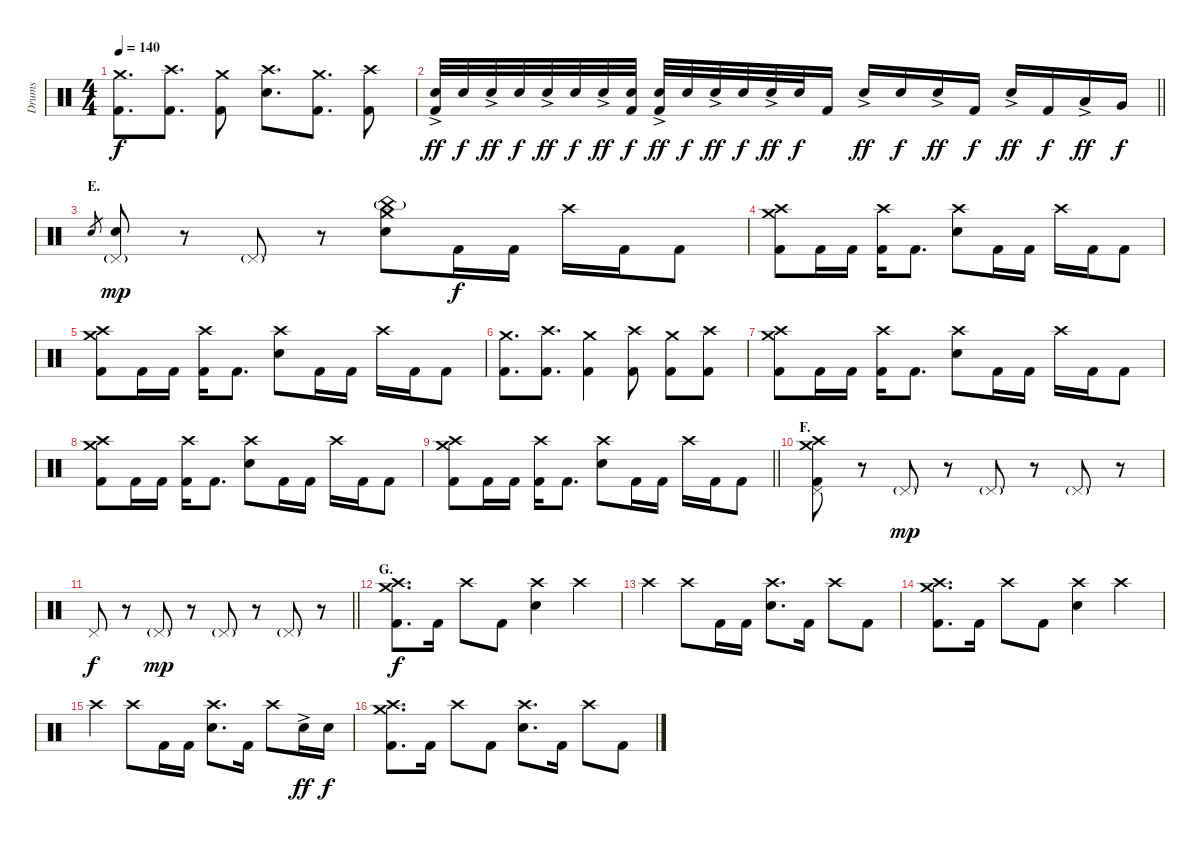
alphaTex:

\track ("Drums" "Drums") {instrument percussion}
\staff {score}
\articulation defaults
\ts (4 4)
\tempo 140
\clef neutral
\ks c
("Crash medium (hit)" "Kick (hit) 2").8{d dy f} ("Crash high (hit)" "Kick (hit) 2").8{d} ("Crash medium (hit)" "Kick (hit) 2").8 ("Crash high (hit)" "Electric Snare (hit)").8{d} ("Crash medium (hit)" "Kick (hit) 2").8{d} ("Crash high (hit)" "Kick (hit) 2").8 |
\barLineRight lightlight
("Electric Snare (hit)"{ac} "Kick (hit) 2").32{dy ff} "Electric Snare (hit)".32{dy f} "Electric Snare (hit)"{ac}.32{dy ff} "Electric Snare (hit)".32{dy f} "Electric Snare (hit)"{ac}.32{dy ff} "Electric Snare (hit)".32{dy f} "Electric Snare (hit)"{ac}.32{dy ff} ("Electric Snare (hit)" "Kick (hit) 2").32{dy f} ("Electric Snare (hit)"{ac} "Kick (hit) 2").32{dy ff} "Electric Snare (hit)".32{dy f} "Electric Snare (hit)"{ac}.32{dy ff} "Electric Snare (hit)".32{dy f} "Electric Snare (hit)"{ac}.32{dy ff} "Electric Snare (hit)".32{dy f} "Kick (hit) 2".16 "Electric Snare (hit)"{ac}.16{dy ff} "Electric Snare (hit)".16{dy f} "Electric Snare (hit)"{ac}.16{dy ff} "Kick (hit) 2".16{dy f} "Electric Snare (hit)"{ac}.16{dy ff} "Kick (hit) 2".16{dy f} "Low Tom (hit)"{ac}.16{dy ff} "Very Low Tom (hit)".16{dy f} |
\section ("" "E.")
"Electric Snare (hit)".8{gr} ("Pedal Hi-Hat (hit)"{g} "Electric Snare (hit)").8{dy mp} r.8 "Pedal Hi-Hat (hit)"{g}.8 r.8 ("Crash medium (hit)" "China (hit)"{g} "Electric Snare (hit)").8 "Kick (hit) 2".16{dy f} "Kick (hit) 2".16 "Crash high (hit)".16 "Kick (hit) 2".16 "Kick (hit) 2".8 |
("Crash medium (hit)" "Crash high (hit)" "Kick (hit) 2").8 "Kick (hit) 2".16 "Kick (hit) 2".16 ("Crash high (hit)" "Kick (hit) 2").16 "Kick (hit) 2".8{d} ("Crash high (hit)" "Electric Snare (hit)").8 "Kick (hit) 2".16 "Kick (hit) 2".16 "Crash high (hit)".16 "Kick (hit) 2".16 "Kick (hit) 2".8 |
("Crash medium (hit)" "Crash high (hit)" "Kick (hit) 2").8 "Kick (hit) 2".16 "Kick (hit) 2".16 ("Crash high (hit)" "Kick (hit) 2").16 "Kick (hit) 2".8{d} ("Crash high (hit)" "Electric Snare (hit)").8 "Kick (hit) 2".16 "Kick (hit) 2".16 "Crash high (hit)".16 "Kick (hit) 2".16 "Kick (hit) 2".8 |
("Crash medium (hit)" "Kick (hit) 2").8{d} ("Crash high (hit)" "Kick (hit) 2").8{d} ("Crash medium (hit)" "Kick (hit) 2").4 ("Crash high (hit)" "Kick (hit) 2").8 ("Crash medium (hit)" "Kick (hit) 2").8 ("Crash high (hit)" "Kick (hit) 2").8 |
("Crash medium (hit)" "Crash high (hit)" "Kick (hit) 2").8 "Kick (hit) 2".16 "Kick (hit) 2".16 ("Crash high (hit)" "Kick (hit) 2").16 "Kick (hit) 2".8{d} ("Crash high (hit)" "Electric Snare (hit)").8 "Kick (hit) 2".16 "Kick (hit) 2".16 "Crash high (hit)".16 "Kick (hit) 2".16 "Kick (hit) 2".8 |
("Crash medium (hit)" "Crash high (hit)" "Kick (hit) 2").8 "Kick (hit) 2".16 "Kick (hit) 2".16 ("Crash high (hit)" "Kick (hit) 2").16 "Kick (hit) 2".8{d} ("Crash high (hit)" "Electric Snare (hit)").8 "Kick (hit) 2".16 "Kick (hit) 2".16 "Crash high (hit)".16 "Kick (hit) 2".16 "Kick (hit) 2".8 |
\barLineRight lightlight
("Crash medium (hit)" "Crash high (hit)" "Kick (hit) 2").8 "Kick (hit) 2".16 "Kick (hit) 2".16 ("Crash high (hit)" "Kick (hit) 2").16 "Kick (hit) 2".8{d} ("Crash high (hit)" "Electric Snare (hit)").8 "Kick (hit) 2".16 "Kick (hit) 2".16 "Crash high (hit)".16 "Kick (hit) 2".16 "Kick (hit) 2".8 |
\section ("" "F.")
("Crash medium (hit)" "Crash high (hit)" "Pedal Hi-Hat (hit)" "Kick (hit) 2").8 r.8 "Pedal Hi-Hat (hit)"{g}.8{dy mp} r.8 "Pedal Hi-Hat (hit)"{g}.8 r.8 "Pedal Hi-Hat (hit)"{g}.8 r.8 |
\barLineRight lightlight "Pedal Hi-Hat (hit)".8{dy f}
r.8 "Pedal Hi-Hat (hit)"{g}.8{dy mp} r.8 "Pedal Hi-Hat (hit)"{g}.8 r.8 "Pedal Hi-Hat (hit)"{g}.8 r.8 |
\section ("" "G.")
("Crash medium (hit)" "Crash high (hit)" "Kick (hit) 2").8{d dy f} "Kick (hit) 2".16 "Crash high (hit)".8 "Kick (hit) 2".8 ("Crash high (hit)" "Electric Snare (hit)").4 "Crash high (hit)".4 |
"Crash high (hit)".4 "Crash high (hit)".8 "Kick (hit) 2".16 "Kick (hit) 2".16 ("Crash high (hit)" "Electric Snare (hit)").8{d} "Kick (hit) 2".16 "Crash high (hit)".8 "Kick (hit) 2".8 |
("Crash medium (hit)" "Crash high (hit)" "Kick (hit) 2").8{d} "Kick (hit) 2".16 "Crash high (hit)".8 "Kick (hit) 2".8 ("Crash high (hit)" "Electric Snare (hit)").4 "Crash high (hit)".4 |
"Crash high (hit)".4 "Crash high (hit)".8 "Kick (hit) 2".16 "Kick (hit) 2".16 ("Crash high (hit)" "Electric Snare (hit)").8{d} "Kick (hit) 2".16 "Crash high (hit)".8 "Electric Snare (hit)"{ac}.16{dy ff} "Electric Snare (hit)".16{dy f} |
("Crash medium (hit)" "Crash high (hit)" "Kick (hit) 2").8{d} "Kick (hit) 2".16 "Crash high (hit)".8 "Kick (hit) 2".8 ("Crash high (hit)" "Electric Snare (hit)").8{d} "Kick (hit) 2".16 "Crash high (hit)".8 "Kick (hit) 2".8
